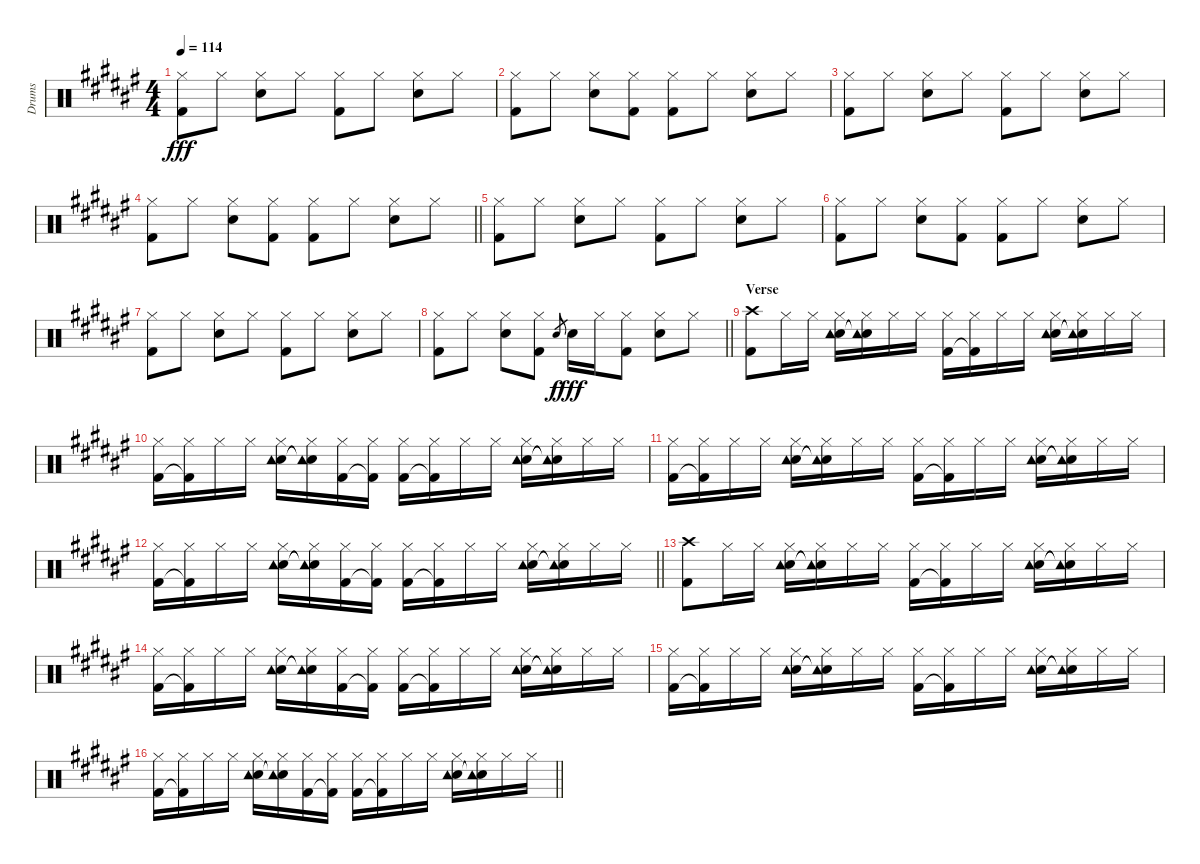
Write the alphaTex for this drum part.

\track ("Drums" "Drums") {instrument percussion}
\staff {score}
\articulation defaults
\ts (4 4)
\tempo 114
\clef neutral
\ks f#
("Hi-Hat (closed)" "Kick (hit) 2").8{dy fff} "Hi-Hat (closed)".8 ("Hi-Hat (closed)" "Electric Snare (hit)").8 "Hi-Hat (closed)".8 ("Hi-Hat (closed)" "Kick (hit) 2").8 "Hi-Hat (closed)".8 ("Hi-Hat (closed)" "Electric Snare (hit)").8 "Hi-Hat (closed)".8 |
("Hi-Hat (closed)" "Kick (hit) 2").8 "Hi-Hat (closed)".8 ("Hi-Hat (closed)" "Electric Snare (hit)").8 ("Hi-Hat (closed)" "Kick (hit) 2").8 ("Hi-Hat (closed)" "Kick (hit) 2").8 "Hi-Hat (closed)".8 ("Hi-Hat (closed)" "Electric Snare (hit)").8 "Hi-Hat (closed)".8 |
("Hi-Hat (closed)" "Kick (hit) 2").8 "Hi-Hat (closed)".8 ("Hi-Hat (closed)" "Electric Snare (hit)").8 "Hi-Hat (closed)".8 ("Hi-Hat (closed)" "Kick (hit) 2").8 "Hi-Hat (closed)".8 ("Hi-Hat (closed)" "Electric Snare (hit)").8 "Hi-Hat (closed)".8 |
\barLineRight lightlight
("Hi-Hat (closed)" "Kick (hit) 2").8 "Hi-Hat (closed)".8 ("Hi-Hat (closed)" "Electric Snare (hit)").8 ("Hi-Hat (closed)" "Kick (hit) 2").8 ("Hi-Hat (closed)" "Kick (hit) 2").8 "Hi-Hat (closed)".8 ("Hi-Hat (closed)" "Electric Snare (hit)").8 "Hi-Hat (closed)".8 |
("Hi-Hat (closed)" "Kick (hit) 2").8 "Hi-Hat (closed)".8 ("Hi-Hat (closed)" "Electric Snare (hit)").8 "Hi-Hat (closed)".8 ("Hi-Hat (closed)" "Kick (hit) 2").8 "Hi-Hat (closed)".8 ("Hi-Hat (closed)" "Electric Snare (hit)").8 "Hi-Hat (closed)".8 |
("Hi-Hat (closed)" "Kick (hit) 2").8 "Hi-Hat (closed)".8 ("Hi-Hat (closed)" "Electric Snare (hit)").8 ("Hi-Hat (closed)" "Kick (hit) 2").8 ("Hi-Hat (closed)" "Kick (hit) 2").8 "Hi-Hat (closed)".8 ("Hi-Hat (closed)" "Electric Snare (hit)").8 "Hi-Hat (closed)".8 |
("Hi-Hat (closed)" "Kick (hit) 2").8 "Hi-Hat (closed)".8 ("Hi-Hat (closed)" "Electric Snare (hit)").8 "Hi-Hat (closed)".8 ("Hi-Hat (closed)" "Kick (hit) 2").8 "Hi-Hat (closed)".8 ("Hi-Hat (closed)" "Electric Snare (hit)").8 "Hi-Hat (closed)".8 |
\barLineRight lightlight
("Hi-Hat (closed)" "Kick (hit) 2").8 "Hi-Hat (closed)".8 ("Hi-Hat (closed)" "Electric Snare (hit)").8 ("Hi-Hat (closed)" "Kick (hit) 2").8 "Electric Snare (hit)".8{gr dy f} "Electric Snare (hit)".16{dy fff} "Hi-Hat (closed)".16 ("Hi-Hat (closed)" "Kick (hit) 2").8 ("Hi-Hat (closed)" "Electric Snare (hit)").8 "Hi-Hat (closed)".8 |
\section ("" "Verse")
("Crash high (hit)" "Kick (hit) 2").8 "Hi-Hat (closed)".16 "Hi-Hat (closed)".16 ("Hi-Hat (closed)" "Electric Snare (hit)" "Tambourine (hit)").16 ("Hi-Hat (closed)" "Electric Snare (hit)"{t} "Tambourine (hit)"{t}).16 "Hi-Hat (closed)".16 "Hi-Hat (closed)".16 ("Hi-Hat (closed)" "Kick (hit) 2").16 ("Hi-Hat (closed)" "Kick (hit) 2"{t}).16 "Hi-Hat (closed)".16 "Hi-Hat (closed)".16 ("Hi-Hat (closed)" "Electric Snare (hit)" "Tambourine (hit)").16 ("Hi-Hat (closed)" "Electric Snare (hit)"{t} "Tambourine (hit)"{t}).16 "Hi-Hat (closed)".16 "Hi-Hat (closed)".16 |
("Hi-Hat (closed)" "Kick (hit) 2").16 ("Hi-Hat (closed)" "Kick (hit) 2"{t}).16 "Hi-Hat (closed)".16 "Hi-Hat (closed)".16 ("Hi-Hat (closed)" "Electric Snare (hit)" "Tambourine (hit)").16 ("Hi-Hat (closed)" "Electric Snare (hit)"{t} "Tambourine (hit)"{t}).16 ("Hi-Hat (closed)" "Kick (hit) 2").16 ("Hi-Hat (closed)" "Kick (hit) 2"{t}).16 ("Hi-Hat (closed)" "Kick (hit) 2").16 ("Hi-Hat (closed)" "Kick (hit) 2"{t}).16 "Hi-Hat (closed)".16 "Hi-Hat (closed)".16 ("Hi-Hat (closed)" "Electric Snare (hit)" "Tambourine (hit)").16 ("Hi-Hat (closed)" "Electric Snare (hit)"{t} "Tambourine (hit)"{t}).16 "Hi-Hat (closed)".16 "Hi-Hat (closed)".16 |
("Hi-Hat (closed)" "Kick (hit) 2").16 ("Hi-Hat (closed)" "Kick (hit) 2"{t}).16 "Hi-Hat (closed)".16 "Hi-Hat (closed)".16 ("Hi-Hat (closed)" "Electric Snare (hit)" "Tambourine (hit)").16 ("Hi-Hat (closed)" "Electric Snare (hit)"{t} "Tambourine (hit)"{t}).16 "Hi-Hat (closed)".16 "Hi-Hat (closed)".16 ("Hi-Hat (closed)" "Kick (hit) 2").16 ("Hi-Hat (closed)" "Kick (hit) 2"{t}).16 "Hi-Hat (closed)".16 "Hi-Hat (closed)".16 ("Hi-Hat (closed)" "Electric Snare (hit)" "Tambourine (hit)").16 ("Hi-Hat (closed)" "Electric Snare (hit)"{t} "Tambourine (hit)"{t}).16 "Hi-Hat (closed)".16 "Hi-Hat (closed)".16 |
\barLineRight lightlight
("Hi-Hat (closed)" "Kick (hit) 2").16 ("Hi-Hat (closed)" "Kick (hit) 2"{t}).16 "Hi-Hat (closed)".16 "Hi-Hat (closed)".16 ("Hi-Hat (closed)" "Electric Snare (hit)" "Tambourine (hit)").16 ("Hi-Hat (closed)" "Electric Snare (hit)"{t} "Tambourine (hit)"{t}).16 ("Hi-Hat (closed)" "Kick (hit) 2").16 ("Hi-Hat (closed)" "Kick (hit) 2"{t}).16 ("Hi-Hat (closed)" "Kick (hit) 2").16 ("Hi-Hat (closed)" "Kick (hit) 2"{t}).16 "Hi-Hat (closed)".16 "Hi-Hat (closed)".16 ("Hi-Hat (closed)" "Electric Snare (hit)" "Tambourine (hit)").16 ("Hi-Hat (closed)" "Electric Snare (hit)"{t} "Tambourine (hit)"{t}).16 "Hi-Hat (closed)".16 "Hi-Hat (closed)".16 |
("Crash high (hit)" "Kick (hit) 2").8 "Hi-Hat (closed)".16 "Hi-Hat (closed)".16 ("Hi-Hat (closed)" "Electric Snare (hit)" "Tambourine (hit)").16 ("Hi-Hat (closed)" "Electric Snare (hit)"{t} "Tambourine (hit)"{t}).16 "Hi-Hat (closed)".16 "Hi-Hat (closed)".16 ("Hi-Hat (closed)" "Kick (hit) 2").16 ("Hi-Hat (closed)" "Kick (hit) 2"{t}).16 "Hi-Hat (closed)".16 "Hi-Hat (closed)".16 ("Hi-Hat (closed)" "Electric Snare (hit)" "Tambourine (hit)").16 ("Hi-Hat (closed)" "Electric Snare (hit)"{t} "Tambourine (hit)"{t}).16 "Hi-Hat (closed)".16 "Hi-Hat (closed)".16 |
("Hi-Hat (closed)" "Kick (hit) 2").16 ("Hi-Hat (closed)" "Kick (hit) 2"{t}).16 "Hi-Hat (closed)".16 "Hi-Hat (closed)".16 ("Hi-Hat (closed)" "Electric Snare (hit)" "Tambourine (hit)").16 ("Hi-Hat (closed)" "Electric Snare (hit)"{t} "Tambourine (hit)"{t}).16 ("Hi-Hat (closed)" "Kick (hit) 2").16 ("Hi-Hat (closed)" "Kick (hit) 2"{t}).16 ("Hi-Hat (closed)" "Kick (hit) 2").16 ("Hi-Hat (closed)" "Kick (hit) 2"{t}).16 "Hi-Hat (closed)".16 "Hi-Hat (closed)".16 ("Hi-Hat (closed)" "Electric Snare (hit)" "Tambourine (hit)").16 ("Hi-Hat (closed)" "Electric Snare (hit)"{t} "Tambourine (hit)"{t}).16 "Hi-Hat (closed)".16 "Hi-Hat (closed)".16 |
("Hi-Hat (closed)" "Kick (hit) 2").16 ("Hi-Hat (closed)" "Kick (hit) 2"{t}).16 "Hi-Hat (closed)".16 "Hi-Hat (closed)".16 ("Hi-Hat (closed)" "Electric Snare (hit)" "Tambourine (hit)").16 ("Hi-Hat (closed)" "Electric Snare (hit)"{t} "Tambourine (hit)"{t}).16 "Hi-Hat (closed)".16 "Hi-Hat (closed)".16 ("Hi-Hat (closed)" "Kick (hit) 2").16 ("Hi-Hat (closed)" "Kick (hit) 2"{t}).16 "Hi-Hat (closed)".16 "Hi-Hat (closed)".16 ("Hi-Hat (closed)" "Electric Snare (hit)" "Tambourine (hit)").16 ("Hi-Hat (closed)" "Electric Snare (hit)"{t} "Tambourine (hit)"{t}).16 "Hi-Hat (closed)".16 "Hi-Hat (closed)".16 |
\barLineRight lightlight
("Hi-Hat (closed)" "Kick (hit) 2").16 ("Hi-Hat (closed)" "Kick (hit) 2"{t}).16 "Hi-Hat (closed)".16 "Hi-Hat (closed)".16 ("Hi-Hat (closed)" "Electric Snare (hit)" "Tambourine (hit)").16 ("Hi-Hat (closed)" "Electric Snare (hit)"{t} "Tambourine (hit)"{t}).16 ("Hi-Hat (closed)" "Kick (hit) 2").16 ("Hi-Hat (closed)" "Kick (hit) 2"{t}).16 ("Hi-Hat (closed)" "Kick (hit) 2").16 ("Hi-Hat (closed)" "Kick (hit) 2"{t}).16 "Hi-Hat (closed)".16 "Hi-Hat (closed)".16 ("Hi-Hat (closed)" "Electric Snare (hit)" "Tambourine (hit)").16 ("Hi-Hat (closed)" "Electric Snare (hit)"{t} "Tambourine (hit)"{t}).16 "Hi-Hat (closed)".16 "Hi-Hat (closed)".16
